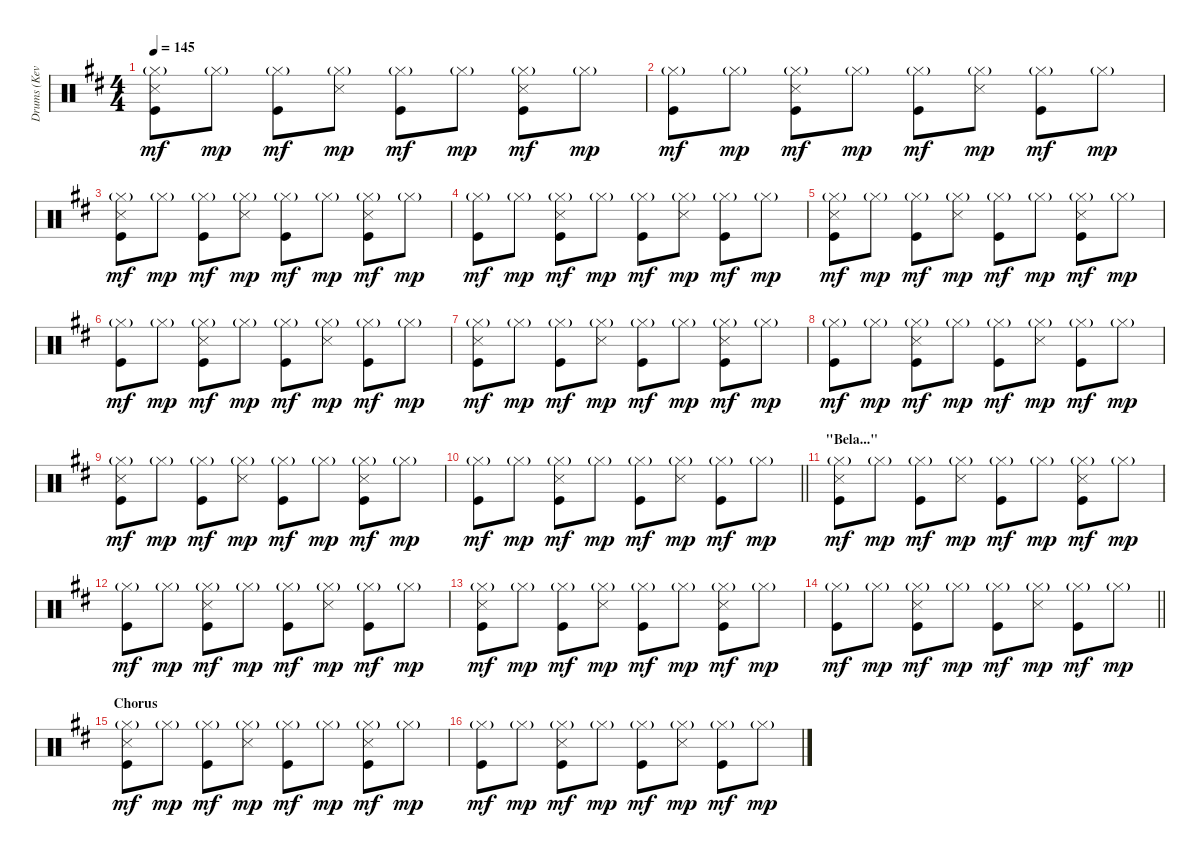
\track ("Drums (Kevin Haskins)" "Drums (Kev") {instrument percussion}
\staff {score}
\articulation defaults
\ts (4 4)
\tempo 145
\clef neutral
\ks d
("Hi-Hat (closed)"{g} "Snare (side stick) 3" "Kick (hit)").8{dy mf} "Hi-Hat (closed)"{g}.8{dy mp} ("Hi-Hat (closed)"{g} "Kick (hit)").8{dy mf} ("Hi-Hat (closed)"{g} "Snare (side stick) 3").8{dy mp} ("Hi-Hat (closed)"{g} "Kick (hit)").8{dy mf} "Hi-Hat (closed)"{g}.8{dy mp} ("Hi-Hat (closed)"{g} "Snare (side stick) 3" "Kick (hit)").8{dy mf} "Hi-Hat (closed)"{g}.8{dy mp} |
("Hi-Hat (closed)"{g} "Kick (hit)").8{dy mf} "Hi-Hat (closed)"{g}.8{dy mp} ("Hi-Hat (closed)"{g} "Snare (side stick) 3" "Kick (hit)").8{dy mf} "Hi-Hat (closed)"{g}.8{dy mp} ("Hi-Hat (closed)"{g} "Kick (hit)").8{dy mf} ("Hi-Hat (closed)"{g} "Snare (side stick) 3").8{dy mp} ("Hi-Hat (closed)"{g} "Kick (hit)").8{dy mf} "Hi-Hat (closed)"{g}.8{dy mp} |
("Hi-Hat (closed)"{g} "Snare (side stick) 3" "Kick (hit)").8{dy mf} "Hi-Hat (closed)"{g}.8{dy mp} ("Hi-Hat (closed)"{g} "Kick (hit)").8{dy mf} ("Hi-Hat (closed)"{g} "Snare (side stick) 3").8{dy mp} ("Hi-Hat (closed)"{g} "Kick (hit)").8{dy mf} "Hi-Hat (closed)"{g}.8{dy mp} ("Hi-Hat (closed)"{g} "Snare (side stick) 3" "Kick (hit)").8{dy mf} "Hi-Hat (closed)"{g}.8{dy mp} |
("Hi-Hat (closed)"{g} "Kick (hit)").8{dy mf} "Hi-Hat (closed)"{g}.8{dy mp} ("Hi-Hat (closed)"{g} "Snare (side stick) 3" "Kick (hit)").8{dy mf} "Hi-Hat (closed)"{g}.8{dy mp} ("Hi-Hat (closed)"{g} "Kick (hit)").8{dy mf} ("Hi-Hat (closed)"{g} "Snare (side stick) 3").8{dy mp} ("Hi-Hat (closed)"{g} "Kick (hit)").8{dy mf} "Hi-Hat (closed)"{g}.8{dy mp} |
("Hi-Hat (closed)"{g} "Snare (side stick) 3" "Kick (hit)").8{dy mf} "Hi-Hat (closed)"{g}.8{dy mp} ("Hi-Hat (closed)"{g} "Kick (hit)").8{dy mf} ("Hi-Hat (closed)"{g} "Snare (side stick) 3").8{dy mp} ("Hi-Hat (closed)"{g} "Kick (hit)").8{dy mf} "Hi-Hat (closed)"{g}.8{dy mp} ("Hi-Hat (closed)"{g} "Snare (side stick) 3" "Kick (hit)").8{dy mf} "Hi-Hat (closed)"{g}.8{dy mp} |
("Hi-Hat (closed)"{g} "Kick (hit)").8{dy mf} "Hi-Hat (closed)"{g}.8{dy mp} ("Hi-Hat (closed)"{g} "Snare (side stick) 3" "Kick (hit)").8{dy mf} "Hi-Hat (closed)"{g}.8{dy mp} ("Hi-Hat (closed)"{g} "Kick (hit)").8{dy mf} ("Hi-Hat (closed)"{g} "Snare (side stick) 3").8{dy mp} ("Hi-Hat (closed)"{g} "Kick (hit)").8{dy mf} "Hi-Hat (closed)"{g}.8{dy mp} |
("Hi-Hat (closed)"{g} "Snare (side stick) 3" "Kick (hit)").8{dy mf} "Hi-Hat (closed)"{g}.8{dy mp} ("Hi-Hat (closed)"{g} "Kick (hit)").8{dy mf} ("Hi-Hat (closed)"{g} "Snare (side stick) 3").8{dy mp} ("Hi-Hat (closed)"{g} "Kick (hit)").8{dy mf} "Hi-Hat (closed)"{g}.8{dy mp} ("Hi-Hat (closed)"{g} "Snare (side stick) 3" "Kick (hit)").8{dy mf} "Hi-Hat (closed)"{g}.8{dy mp} |
("Hi-Hat (closed)"{g} "Kick (hit)").8{dy mf} "Hi-Hat (closed)"{g}.8{dy mp} ("Hi-Hat (closed)"{g} "Snare (side stick) 3" "Kick (hit)").8{dy mf} "Hi-Hat (closed)"{g}.8{dy mp} ("Hi-Hat (closed)"{g} "Kick (hit)").8{dy mf} ("Hi-Hat (closed)"{g} "Snare (side stick) 3").8{dy mp} ("Hi-Hat (closed)"{g} "Kick (hit)").8{dy mf} "Hi-Hat (closed)"{g}.8{dy mp} |
("Hi-Hat (closed)"{g} "Snare (side stick) 3" "Kick (hit)").8{dy mf} "Hi-Hat (closed)"{g}.8{dy mp} ("Hi-Hat (closed)"{g} "Kick (hit)").8{dy mf} ("Hi-Hat (closed)"{g} "Snare (side stick) 3").8{dy mp} ("Hi-Hat (closed)"{g} "Kick (hit)").8{dy mf} "Hi-Hat (closed)"{g}.8{dy mp} ("Hi-Hat (closed)"{g} "Snare (side stick) 3" "Kick (hit)").8{dy mf} "Hi-Hat (closed)"{g}.8{dy mp} |
\barLineRight lightlight
("Hi-Hat (closed)"{g} "Kick (hit)").8{dy mf} "Hi-Hat (closed)"{g}.8{dy mp} ("Hi-Hat (closed)"{g} "Snare (side stick) 3" "Kick (hit)").8{dy mf} "Hi-Hat (closed)"{g}.8{dy mp} ("Hi-Hat (closed)"{g} "Kick (hit)").8{dy mf} ("Hi-Hat (closed)"{g} "Snare (side stick) 3").8{dy mp} ("Hi-Hat (closed)"{g} "Kick (hit)").8{dy mf} "Hi-Hat (closed)"{g}.8{dy mp} |
\section ("" "\"Bela...\"")
("Hi-Hat (closed)"{g} "Snare (side stick) 3" "Kick (hit)").8{dy mf} "Hi-Hat (closed)"{g}.8{dy mp} ("Hi-Hat (closed)"{g} "Kick (hit)").8{dy mf} ("Hi-Hat (closed)"{g} "Snare (side stick) 3").8{dy mp} ("Hi-Hat (closed)"{g} "Kick (hit)").8{dy mf} "Hi-Hat (closed)"{g}.8{dy mp} ("Hi-Hat (closed)"{g} "Snare (side stick) 3" "Kick (hit)").8{dy mf} "Hi-Hat (closed)"{g}.8{dy mp} |
("Hi-Hat (closed)"{g} "Kick (hit)").8{dy mf} "Hi-Hat (closed)"{g}.8{dy mp} ("Hi-Hat (closed)"{g} "Snare (side stick) 3" "Kick (hit)").8{dy mf} "Hi-Hat (closed)"{g}.8{dy mp} ("Hi-Hat (closed)"{g} "Kick (hit)").8{dy mf} ("Hi-Hat (closed)"{g} "Snare (side stick) 3").8{dy mp} ("Hi-Hat (closed)"{g} "Kick (hit)").8{dy mf} "Hi-Hat (closed)"{g}.8{dy mp} |
("Hi-Hat (closed)"{g} "Snare (side stick) 3" "Kick (hit)").8{dy mf} "Hi-Hat (closed)"{g}.8{dy mp} ("Hi-Hat (closed)"{g} "Kick (hit)").8{dy mf} ("Hi-Hat (closed)"{g} "Snare (side stick) 3").8{dy mp} ("Hi-Hat (closed)"{g} "Kick (hit)").8{dy mf} "Hi-Hat (closed)"{g}.8{dy mp} ("Hi-Hat (closed)"{g} "Snare (side stick) 3" "Kick (hit)").8{dy mf} "Hi-Hat (closed)"{g}.8{dy mp} |
\barLineRight lightlight
("Hi-Hat (closed)"{g} "Kick (hit)").8{dy mf} "Hi-Hat (closed)"{g}.8{dy mp} ("Hi-Hat (closed)"{g} "Snare (side stick) 3" "Kick (hit)").8{dy mf} "Hi-Hat (closed)"{g}.8{dy mp} ("Hi-Hat (closed)"{g} "Kick (hit)").8{dy mf} ("Hi-Hat (closed)"{g} "Snare (side stick) 3").8{dy mp} ("Hi-Hat (closed)"{g} "Kick (hit)").8{dy mf} "Hi-Hat (closed)"{g}.8{dy mp} |
\section ("" "Chorus")
("Hi-Hat (closed)"{g} "Snare (side stick) 3" "Kick (hit)").8{dy mf} "Hi-Hat (closed)"{g}.8{dy mp} ("Hi-Hat (closed)"{g} "Kick (hit)").8{dy mf} ("Hi-Hat (closed)"{g} "Snare (side stick) 3").8{dy mp} ("Hi-Hat (closed)"{g} "Kick (hit)").8{dy mf} "Hi-Hat (closed)"{g}.8{dy mp} ("Hi-Hat (closed)"{g} "Snare (side stick) 3" "Kick (hit)").8{dy mf} "Hi-Hat (closed)"{g}.8{dy mp} |
("Hi-Hat (closed)"{g} "Kick (hit)").8{dy mf} "Hi-Hat (closed)"{g}.8{dy mp} ("Hi-Hat (closed)"{g} "Snare (side stick) 3" "Kick (hit)").8{dy mf} "Hi-Hat (closed)"{g}.8{dy mp} ("Hi-Hat (closed)"{g} "Kick (hit)").8{dy mf} ("Hi-Hat (closed)"{g} "Snare (side stick) 3").8{dy mp} ("Hi-Hat (closed)"{g} "Kick (hit)").8{dy mf} "Hi-Hat (closed)"{g}.8{dy mp}
